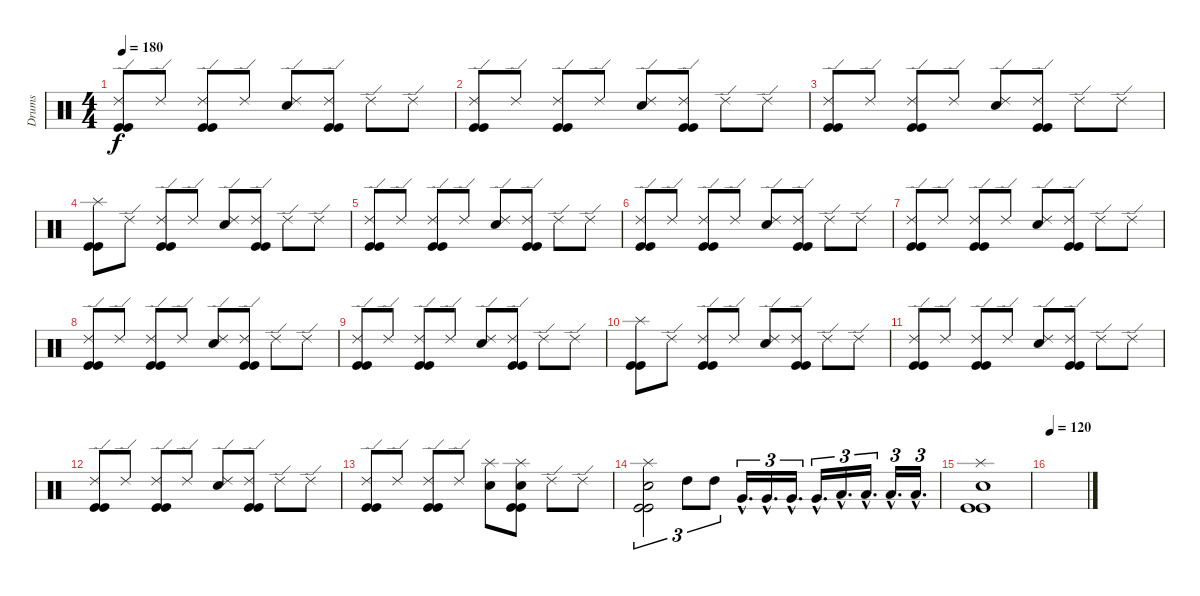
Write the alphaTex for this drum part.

\track ("Drums" "Drums") {instrument percussion}
\staff {score}
\articulation defaults
\ts (4 4)
\tempo 180
\clef neutral
\ks c
("Ride (edge) 2" "Kick (hit)" "Kick (hit)").8{dy f} "Ride (edge) 2".8 ("Ride (edge) 2" "Kick (hit)" "Kick (hit)").8 "Ride (edge) 2".8 ("Ride (edge) 2" "Snare (hit) 2").8 ("Ride (edge) 2" "Kick (hit)" "Kick (hit)").8 "Ride (edge) 2".8 "Ride (edge) 2".8 |
("Ride (edge) 2" "Kick (hit)" "Kick (hit)").8 "Ride (edge) 2".8 ("Ride (edge) 2" "Kick (hit)" "Kick (hit)").8 "Ride (edge) 2".8 ("Ride (edge) 2" "Snare (hit) 2").8 ("Ride (edge) 2" "Kick (hit)" "Kick (hit)").8 "Ride (edge) 2".8 "Ride (edge) 2".8 |
("Ride (edge) 2" "Kick (hit)" "Kick (hit)").8 "Ride (edge) 2".8 ("Ride (edge) 2" "Kick (hit)" "Kick (hit)").8 "Ride (edge) 2".8 ("Ride (edge) 2" "Snare (hit) 2").8 ("Ride (edge) 2" "Kick (hit)" "Kick (hit)").8 "Ride (edge) 2".8 "Ride (edge) 2".8 |
("Splash (hit)" "Kick (hit)" "Kick (hit)").8 "Ride (edge) 2".8 ("Ride (edge) 2" "Kick (hit)" "Kick (hit)").8 "Ride (edge) 2".8 ("Ride (edge) 2" "Snare (hit) 2").8 ("Ride (edge) 2" "Kick (hit)" "Kick (hit)").8 "Ride (edge) 2".8 "Ride (edge) 2".8 |
("Ride (edge) 2" "Kick (hit)" "Kick (hit)").8 "Ride (edge) 2".8 ("Ride (edge) 2" "Kick (hit)" "Kick (hit)").8 "Ride (edge) 2".8 ("Ride (edge) 2" "Snare (hit) 2").8 ("Ride (edge) 2" "Kick (hit)" "Kick (hit)").8 "Ride (edge) 2".8 "Ride (edge) 2".8 |
("Ride (edge) 2" "Kick (hit)" "Kick (hit)").8 "Ride (edge) 2".8 ("Ride (edge) 2" "Kick (hit)" "Kick (hit)").8 "Ride (edge) 2".8 ("Ride (edge) 2" "Snare (hit) 2").8 ("Ride (edge) 2" "Kick (hit)" "Kick (hit)").8 "Ride (edge) 2".8 "Ride (edge) 2".8 |
("Ride (edge) 2" "Kick (hit)" "Kick (hit)").8 "Ride (edge) 2".8 ("Ride (edge) 2" "Kick (hit)" "Kick (hit)").8 "Ride (edge) 2".8 ("Ride (edge) 2" "Snare (hit) 2").8 ("Ride (edge) 2" "Kick (hit)" "Kick (hit)").8 "Ride (edge) 2".8 "Ride (edge) 2".8 |
("Ride (edge) 2" "Kick (hit)" "Kick (hit)").8 "Ride (edge) 2".8 ("Ride (edge) 2" "Kick (hit)" "Kick (hit)").8 "Ride (edge) 2".8 ("Ride (edge) 2" "Snare (hit) 2").8 ("Ride (edge) 2" "Kick (hit)" "Kick (hit)").8 "Ride (edge) 2".8 "Ride (edge) 2".8 |
("Ride (edge) 2" "Kick (hit)" "Kick (hit)").8 "Ride (edge) 2".8 ("Ride (edge) 2" "Kick (hit)" "Kick (hit)").8 "Ride (edge) 2".8 ("Ride (edge) 2" "Snare (hit) 2").8 ("Ride (edge) 2" "Kick (hit)" "Kick (hit)").8 "Ride (edge) 2".8 "Ride (edge) 2".8 |
("Splash (hit)" "Kick (hit)" "Kick (hit)").8 "Ride (edge) 2".8 ("Ride (edge) 2" "Kick (hit)" "Kick (hit)").8 "Ride (edge) 2".8 ("Ride (edge) 2" "Snare (hit) 2").8 ("Ride (edge) 2" "Kick (hit)" "Kick (hit)").8 "Ride (edge) 2".8 "Ride (edge) 2".8 |
("Ride (edge) 2" "Kick (hit)" "Kick (hit)").8 "Ride (edge) 2".8 ("Ride (edge) 2" "Kick (hit)" "Kick (hit)").8 "Ride (edge) 2".8 ("Ride (edge) 2" "Snare (hit) 2").8 ("Ride (edge) 2" "Kick (hit)" "Kick (hit)").8 "Ride (edge) 2".8 "Ride (edge) 2".8 |
("Ride (edge) 2" "Kick (hit)" "Kick (hit)").8 "Ride (edge) 2".8 ("Ride (edge) 2" "Kick (hit)" "Kick (hit)").8 "Ride (edge) 2".8 ("Ride (edge) 2" "Snare (hit) 2").8 ("Ride (edge) 2" "Kick (hit)" "Kick (hit)").8 "Ride (edge) 2".8 "Ride (edge) 2".8 |
("Ride (edge) 2" "Kick (hit)" "Kick (hit)").8 "Ride (edge) 2".8 ("Ride (edge) 2" "Kick (hit)" "Kick (hit)").8 "Ride (edge) 2".8 ("Splash (hit)" "Snare (hit) 2").8 ("Splash (hit)" "Snare (hit) 2" "Kick (hit)" "Kick (hit)").8 "Ride (edge) 2".8 "Ride (edge) 2".8 |
("Splash (hit)" "Snare (hit) 2" "Kick (hit)" "Kick (hit)").2{tu (3 2)} "High Tom (hit)".8{tu (3 2)} "High Tom (hit)".8{tu (3 2)} "Very Low Tom (hit)"{hac}.16{d tu (3 2)} "Very Low Tom (hit)"{hac}.16{d tu (3 2)} "Very Low Tom (hit)"{hac}.16{d tu (3 2)} "Very Low Tom (hit)"{hac}.16{d tu (3 2)} "Low Tom (hit)"{hac}.16{d tu (3 2)} "Low Tom (hit)"{hac}.16{d tu (3 2)} "Low Tom (hit)"{hac}.16{d tu (3 2)} "Low Tom (hit)"{hac}.16{d tu (3 2)} |
("Splash (hit)" "Snare (hit) 2" "Kick (hit)" "Kick (hit)").1 |
\tempo 120
